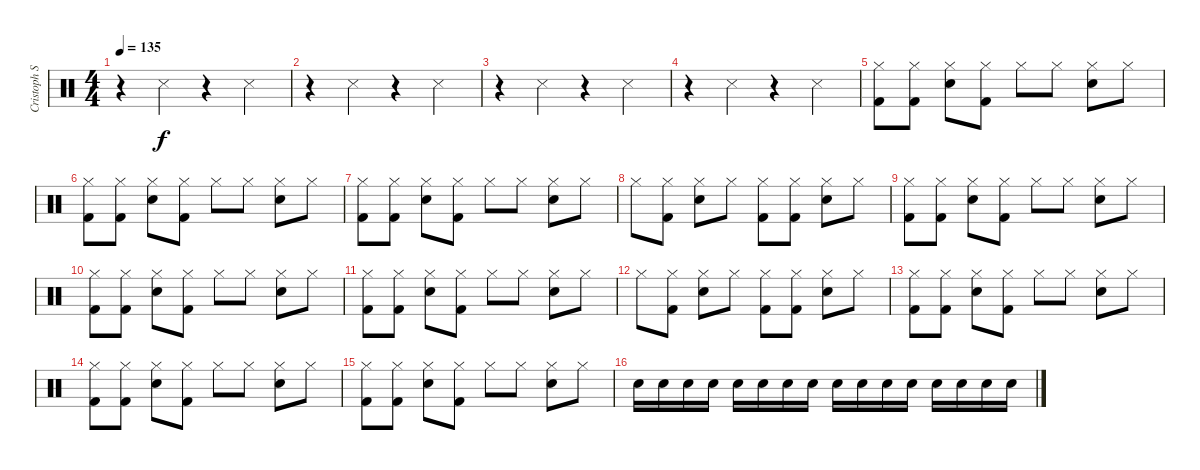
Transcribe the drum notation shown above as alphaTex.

\track ("Cristoph Schneider / Drums" "Cristoph S") {instrument percussion}
\staff {score}
\articulation defaults
\ts (4 4)
\tempo 135
\clef neutral
\ks c
r.4{dy f} "Metronome (hit)".4 r.4 "Metronome (hit)".4 |
r.4 "Metronome (hit)".4 r.4 "Metronome (hit)".4 |
r.4 "Metronome (hit)".4 r.4 "Metronome (hit)".4 |
r.4 "Metronome (hit)".4 r.4 "Metronome (hit)".4 |
("Hi-Hat (closed)" "Kick (hit) 2").8 ("Hi-Hat (closed)" "Kick (hit) 2").8 ("Hi-Hat (closed)" "Electric Snare (hit)").8 ("Hi-Hat (closed)" "Kick (hit) 2").8 "Hi-Hat (closed)".8 "Hi-Hat (closed)".8 ("Hi-Hat (closed)" "Electric Snare (hit)").8 "Hi-Hat (closed)".8 |
("Hi-Hat (closed)" "Kick (hit) 2").8 ("Hi-Hat (closed)" "Kick (hit) 2").8 ("Hi-Hat (closed)" "Electric Snare (hit)").8 ("Hi-Hat (closed)" "Kick (hit) 2").8 "Hi-Hat (closed)".8 "Hi-Hat (closed)".8 ("Hi-Hat (closed)" "Electric Snare (hit)").8 "Hi-Hat (closed)".8 |
("Hi-Hat (closed)" "Kick (hit) 2").8 ("Hi-Hat (closed)" "Kick (hit) 2").8 ("Hi-Hat (closed)" "Electric Snare (hit)").8 ("Hi-Hat (closed)" "Kick (hit) 2").8 "Hi-Hat (closed)".8 "Hi-Hat (closed)".8 ("Hi-Hat (closed)" "Electric Snare (hit)").8 "Hi-Hat (closed)".8 |
"Hi-Hat (closed)".8 ("Hi-Hat (closed)" "Kick (hit) 2").8 ("Hi-Hat (closed)" "Electric Snare (hit)").8 "Hi-Hat (closed)".8 ("Hi-Hat (closed)" "Kick (hit) 2").8 ("Hi-Hat (closed)" "Kick (hit) 2").8 ("Hi-Hat (closed)" "Electric Snare (hit)").8 "Hi-Hat (closed)".8 |
("Hi-Hat (closed)" "Kick (hit) 2").8 ("Hi-Hat (closed)" "Kick (hit) 2").8 ("Hi-Hat (closed)" "Electric Snare (hit)").8 ("Hi-Hat (closed)" "Kick (hit) 2").8 "Hi-Hat (closed)".8 "Hi-Hat (closed)".8 ("Hi-Hat (closed)" "Electric Snare (hit)").8 "Hi-Hat (closed)".8 |
("Hi-Hat (closed)" "Kick (hit) 2").8 ("Hi-Hat (closed)" "Kick (hit) 2").8 ("Hi-Hat (closed)" "Electric Snare (hit)").8 ("Hi-Hat (closed)" "Kick (hit) 2").8 "Hi-Hat (closed)".8 "Hi-Hat (closed)".8 ("Hi-Hat (closed)" "Electric Snare (hit)").8 "Hi-Hat (closed)".8 |
("Hi-Hat (closed)" "Kick (hit) 2").8 ("Hi-Hat (closed)" "Kick (hit) 2").8 ("Hi-Hat (closed)" "Electric Snare (hit)").8 ("Hi-Hat (closed)" "Kick (hit) 2").8 "Hi-Hat (closed)".8 "Hi-Hat (closed)".8 ("Hi-Hat (closed)" "Electric Snare (hit)").8 "Hi-Hat (closed)".8 |
"Hi-Hat (closed)".8 ("Hi-Hat (closed)" "Kick (hit) 2").8 ("Hi-Hat (closed)" "Electric Snare (hit)").8 "Hi-Hat (closed)".8 ("Hi-Hat (closed)" "Kick (hit) 2").8 ("Hi-Hat (closed)" "Kick (hit) 2").8 ("Hi-Hat (closed)" "Electric Snare (hit)").8 "Hi-Hat (closed)".8 |
("Hi-Hat (closed)" "Kick (hit) 2").8 ("Hi-Hat (closed)" "Kick (hit) 2").8 ("Hi-Hat (closed)" "Electric Snare (hit)").8 ("Hi-Hat (closed)" "Kick (hit) 2").8 "Hi-Hat (closed)".8 "Hi-Hat (closed)".8 ("Hi-Hat (closed)" "Electric Snare (hit)").8 "Hi-Hat (closed)".8 |
("Hi-Hat (closed)" "Kick (hit) 2").8 ("Hi-Hat (closed)" "Kick (hit) 2").8 ("Hi-Hat (closed)" "Electric Snare (hit)").8 ("Hi-Hat (closed)" "Kick (hit) 2").8 "Hi-Hat (closed)".8 "Hi-Hat (closed)".8 ("Hi-Hat (closed)" "Electric Snare (hit)").8 "Hi-Hat (closed)".8 |
("Hi-Hat (closed)" "Kick (hit) 2").8 ("Hi-Hat (closed)" "Kick (hit) 2").8 ("Hi-Hat (closed)" "Electric Snare (hit)").8 ("Hi-Hat (closed)" "Kick (hit) 2").8 "Hi-Hat (closed)".8 "Hi-Hat (closed)".8 ("Hi-Hat (closed)" "Electric Snare (hit)").8 "Hi-Hat (closed)".8 |
"Electric Snare (hit)".16 "Electric Snare (hit)".16 "Electric Snare (hit)".16 "Electric Snare (hit)".16 "Electric Snare (hit)".16 "Electric Snare (hit)".16 "Electric Snare (hit)".16 "Electric Snare (hit)".16 "Electric Snare (hit)".16 "Electric Snare (hit)".16 "Electric Snare (hit)".16 "Electric Snare (hit)".16 "Electric Snare (hit)".16 "Electric Snare (hit)".16 "Electric Snare (hit)".16 "Electric Snare (hit)".16
